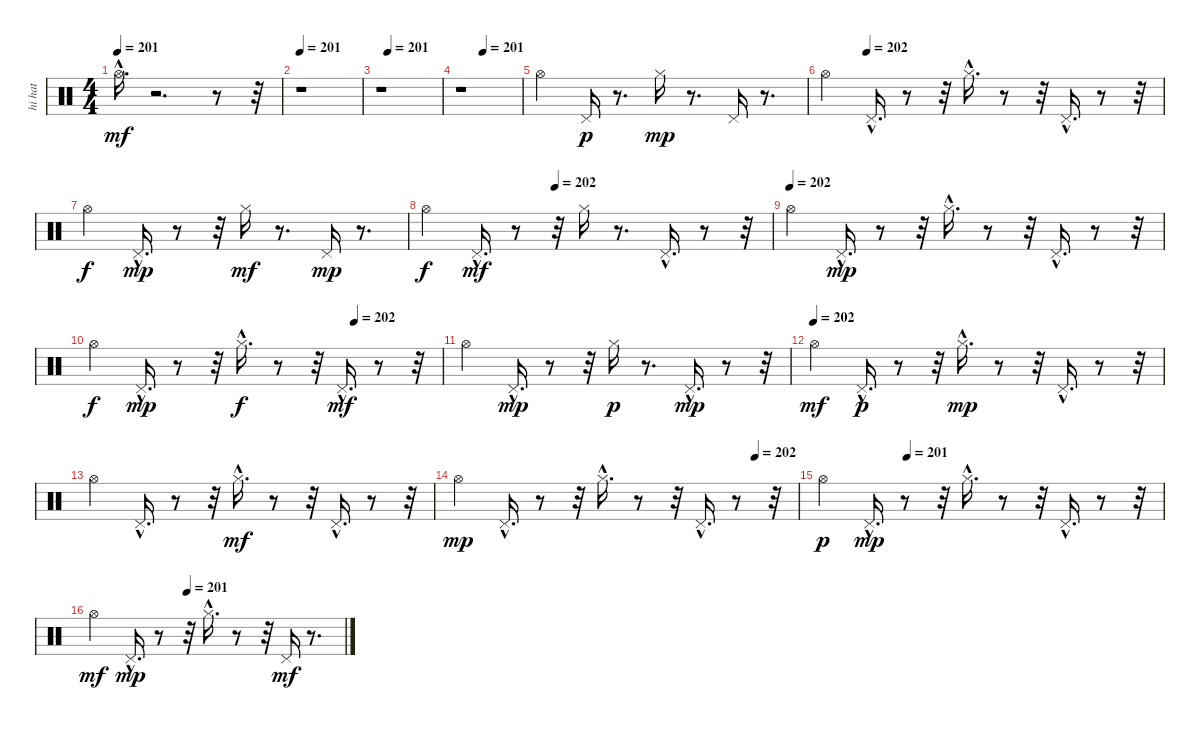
\track ("hi hat" "hi hat") {instrument percussion}
\staff {score}
\articulation defaults
\ts (4 4)
\tempo 201
\clef neutral
\ks c "Hi-Hat (open)"{hac}.16{d dy mf}
r.2{d} r.8 r.32 |
\tempo 201
r.1 |
\tempo (201 0.125)
r.1 |
\tempo (201 0.375)
r.1 |
"Hi-Hat (open)".4 "Pedal Hi-Hat (hit)".16{dy p} r.8{d} "Hi-Hat (closed)".16{dy mp} r.8{d} "Pedal Hi-Hat (hit)".16 r.8{d} |
\tempo (202 0.125)
"Hi-Hat (open)".4 "Pedal Hi-Hat (hit)"{hac}.16{d} r.8 r.32 "Hi-Hat (closed)"{hac}.16{d} r.8 r.32 "Pedal Hi-Hat (hit)"{hac}.16{d} r.8 r.32 |
"Hi-Hat (open)".4{dy f} "Pedal Hi-Hat (hit)"{hac}.16{d dy mp} r.8 r.32 "Hi-Hat (closed)".16{dy mf} r.8{d} "Pedal Hi-Hat (hit)".16{dy mp} r.8{d} |
\tempo (202 0.375)
"Hi-Hat (open)".4{dy f} "Pedal Hi-Hat (hit)"{hac}.16{d dy mf} r.8 r.32 "Hi-Hat (closed)".16 r.8{d} "Pedal Hi-Hat (hit)"{hac}.16{d} r.8 r.32 |
\tempo (202)
"Hi-Hat (open)".4 "Pedal Hi-Hat (hit)"{hac}.16{d dy mp} r.8 r.32 "Hi-Hat (closed)"{hac}.16{d} r.8 r.32 "Pedal Hi-Hat (hit)"{hac}.16{d} r.8 r.32 |
\tempo (202 0.75)
"Hi-Hat (open)".4{dy f} "Pedal Hi-Hat (hit)"{hac}.16{d dy mp} r.8 r.32 "Hi-Hat (closed)"{hac}.16{d dy f} r.8 r.32 "Pedal Hi-Hat (hit)"{hac}.16{d dy mf} r.8 r.32 |
"Hi-Hat (open)".4 "Pedal Hi-Hat (hit)"{hac}.16{d dy mp} r.8 r.32 "Hi-Hat (closed)".16{dy p} r.8{d} "Pedal Hi-Hat (hit)"{hac}.16{d dy mp} r.8 r.32 |
\tempo (202)
"Hi-Hat (open)".4{dy mf} "Pedal Hi-Hat (hit)"{hac}.16{d dy p} r.8 r.32 "Hi-Hat (closed)"{hac}.16{d dy mp} r.8 r.32 "Pedal Hi-Hat (hit)"{hac}.16{d} r.8 r.32 |
"Hi-Hat (open)".4 "Pedal Hi-Hat (hit)"{hac}.16{d} r.8 r.32 "Hi-Hat (closed)"{hac}.16{d dy mf} r.8 r.32 "Pedal Hi-Hat (hit)"{hac}.16{d} r.8 r.32 |
\tempo (202 0.875)
"Hi-Hat (open)".4{dy mp} "Pedal Hi-Hat (hit)"{hac}.16{d} r.8 r.32 "Hi-Hat (closed)"{hac}.16{d} r.8 r.32 "Pedal Hi-Hat (hit)"{hac}.16{d} r.8 r.32 |
\tempo (201 0.25)
"Hi-Hat (open)".4{dy p} "Pedal Hi-Hat (hit)"{hac}.16{d dy mp} r.8 r.32 "Hi-Hat (closed)"{hac}.16{d} r.8 r.32 "Pedal Hi-Hat (hit)"{hac}.16{d} r.8 r.32 |
\tempo (201 0.375)
"Hi-Hat (open)".4{dy mf} "Pedal Hi-Hat (hit)"{hac}.16{d dy mp} r.8 r.32 "Hi-Hat (closed)"{hac}.16{d} r.8 r.32 "Pedal Hi-Hat (hit)".16{dy mf} r.8{d}
